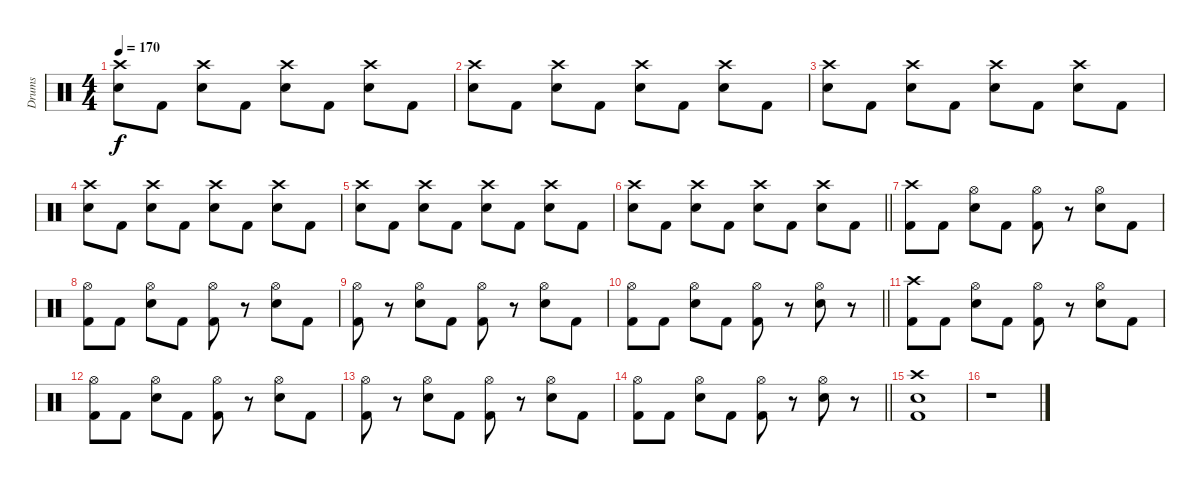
\track ("Drums" "Drums") {instrument percussion}
\staff {score}
\articulation defaults
\ts (4 4)
\section ("" "")
\tempo 170
\clef neutral
\ks c
("Crash high (hit)" "Electric Snare (hit)").8{dy f} "Kick (hit) 2".8 ("Crash high (hit)" "Electric Snare (hit)").8 "Kick (hit) 2".8 ("Crash high (hit)" "Electric Snare (hit)").8 "Kick (hit) 2".8 ("Crash high (hit)" "Electric Snare (hit)").8 "Kick (hit) 2".8 |
("Crash high (hit)" "Electric Snare (hit)").8 "Kick (hit) 2".8 ("Crash high (hit)" "Electric Snare (hit)").8 "Kick (hit) 2".8 ("Crash high (hit)" "Electric Snare (hit)").8 "Kick (hit) 2".8 ("Crash high (hit)" "Electric Snare (hit)").8 "Kick (hit) 2".8 |
("Crash high (hit)" "Electric Snare (hit)").8 "Kick (hit) 2".8 ("Crash high (hit)" "Electric Snare (hit)").8 "Kick (hit) 2".8 ("Crash high (hit)" "Electric Snare (hit)").8 "Kick (hit) 2".8 ("Crash high (hit)" "Electric Snare (hit)").8 "Kick (hit) 2".8 |
("Crash high (hit)" "Electric Snare (hit)").8 "Kick (hit) 2".8 ("Crash high (hit)" "Electric Snare (hit)").8 "Kick (hit) 2".8 ("Crash high (hit)" "Electric Snare (hit)").8 "Kick (hit) 2".8 ("Crash high (hit)" "Electric Snare (hit)").8 "Kick (hit) 2".8 |
("Crash high (hit)" "Electric Snare (hit)").8 "Kick (hit) 2".8 ("Crash high (hit)" "Electric Snare (hit)").8 "Kick (hit) 2".8 ("Crash high (hit)" "Electric Snare (hit)").8 "Kick (hit) 2".8 ("Crash high (hit)" "Electric Snare (hit)").8 "Kick (hit) 2".8 |
\barLineRight lightlight
("Crash high (hit)" "Electric Snare (hit)").8 "Kick (hit) 2".8 ("Crash high (hit)" "Electric Snare (hit)").8 "Kick (hit) 2".8 ("Crash high (hit)" "Electric Snare (hit)").8 "Kick (hit) 2".8 ("Crash high (hit)" "Electric Snare (hit)").8 "Kick (hit) 2".8 |
\section ("" "")
("Crash high (hit)" "Kick (hit) 2").8 "Kick (hit) 2".8 ("Hi-Hat (open)" "Electric Snare (hit)").8 "Kick (hit) 2".8 ("Hi-Hat (open)" "Kick (hit) 2").8 r.8 ("Hi-Hat (open)" "Electric Snare (hit)").8 "Kick (hit) 2".8 |
("Hi-Hat (open)" "Kick (hit) 2").8 "Kick (hit) 2".8 ("Hi-Hat (open)" "Electric Snare (hit)").8 "Kick (hit) 2".8 ("Hi-Hat (open)" "Kick (hit) 2").8 r.8 ("Hi-Hat (open)" "Electric Snare (hit)").8 "Kick (hit) 2".8 |
("Hi-Hat (open)" "Kick (hit) 2").8 r.8 ("Hi-Hat (open)" "Electric Snare (hit)").8 "Kick (hit) 2".8 ("Hi-Hat (open)" "Kick (hit) 2").8 r.8 ("Hi-Hat (open)" "Electric Snare (hit)").8 "Kick (hit) 2".8 |
\barLineRight lightlight
("Hi-Hat (open)" "Kick (hit) 2").8 "Kick (hit) 2".8 ("Hi-Hat (open)" "Electric Snare (hit)").8 "Kick (hit) 2".8 ("Hi-Hat (open)" "Kick (hit) 2").8 r.8 ("Hi-Hat (open)" "Electric Snare (hit)").8 r.8 |
\section ("" "")
("Crash high (hit)" "Kick (hit) 2").8 "Kick (hit) 2".8 ("Hi-Hat (open)" "Electric Snare (hit)").8 "Kick (hit) 2".8 ("Hi-Hat (open)" "Kick (hit) 2").8 r.8 ("Hi-Hat (open)" "Electric Snare (hit)").8 "Kick (hit) 2".8 |
("Hi-Hat (open)" "Kick (hit) 2").8 "Kick (hit) 2".8 ("Hi-Hat (open)" "Electric Snare (hit)").8 "Kick (hit) 2".8 ("Hi-Hat (open)" "Kick (hit) 2").8 r.8 ("Hi-Hat (open)" "Electric Snare (hit)").8 "Kick (hit) 2".8 |
("Hi-Hat (open)" "Kick (hit) 2").8 r.8 ("Hi-Hat (open)" "Electric Snare (hit)").8 "Kick (hit) 2".8 ("Hi-Hat (open)" "Kick (hit) 2").8 r.8 ("Hi-Hat (open)" "Electric Snare (hit)").8 "Kick (hit) 2".8 |
\barLineRight lightlight
("Hi-Hat (open)" "Kick (hit) 2").8 "Kick (hit) 2".8 ("Hi-Hat (open)" "Electric Snare (hit)").8 "Kick (hit) 2".8 ("Hi-Hat (open)" "Kick (hit) 2").8 r.8 ("Hi-Hat (open)" "Electric Snare (hit)").8 r.8 |
("Crash high (hit)" "Electric Snare (hit)" "Kick (hit) 2").1 |
r.1
